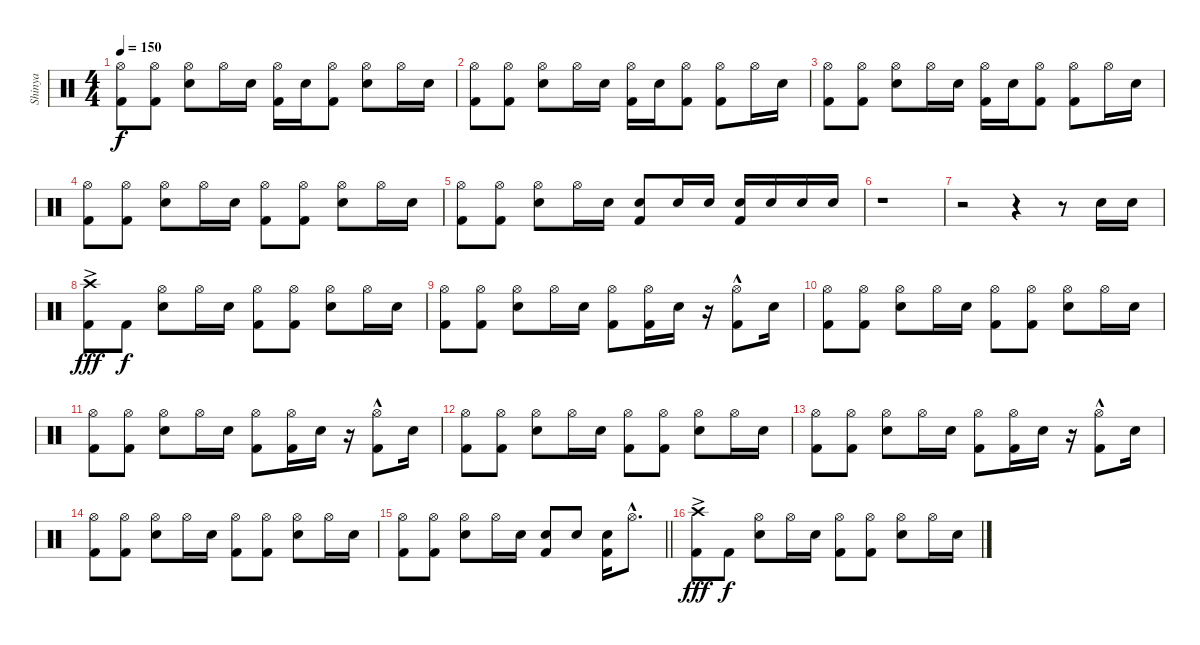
\track ("Shinya" "Shinya") {instrument percussion}
\staff {score}
\articulation defaults
\ts (4 4)
\tempo 150
\clef neutral
\ks c
("Hi-Hat (open)" "Kick (hit) 2").8{dy f} ("Hi-Hat (open)" "Kick (hit) 2").8 ("Hi-Hat (open)" "Snare (hit) 2").8 "Hi-Hat (open)".16 "Snare (hit) 2".16 ("Hi-Hat (open)" "Kick (hit) 2").16 "Snare (hit) 2".16 ("Hi-Hat (open)" "Kick (hit) 2").8 ("Hi-Hat (open)" "Snare (hit) 2").8 "Hi-Hat (open)".16 "Snare (hit) 2".16 |
("Hi-Hat (open)" "Kick (hit) 2").8 ("Hi-Hat (open)" "Kick (hit) 2").8 ("Hi-Hat (open)" "Snare (hit) 2").8 "Hi-Hat (open)".16 "Snare (hit) 2".16 ("Hi-Hat (open)" "Kick (hit) 2").16 "Snare (hit) 2".16 ("Hi-Hat (open)" "Kick (hit) 2").8 ("Hi-Hat (open)" "Kick (hit) 2").8 "Hi-Hat (open)".16 "Snare (hit) 2".16 |
("Hi-Hat (open)" "Kick (hit) 2").8 ("Hi-Hat (open)" "Kick (hit) 2").8 ("Hi-Hat (open)" "Snare (hit) 2").8 "Hi-Hat (open)".16 "Snare (hit) 2".16 ("Hi-Hat (open)" "Kick (hit) 2").16 "Snare (hit) 2".16 ("Hi-Hat (open)" "Kick (hit) 2").8 ("Hi-Hat (open)" "Kick (hit) 2").8 "Hi-Hat (open)".16 "Snare (hit) 2".16 |
("Hi-Hat (open)" "Kick (hit) 2").8 ("Hi-Hat (open)" "Kick (hit) 2").8 ("Hi-Hat (open)" "Snare (hit) 2").8 "Hi-Hat (open)".16 "Snare (hit) 2".16 ("Hi-Hat (open)" "Kick (hit) 2").8 ("Hi-Hat (open)" "Kick (hit) 2").8 ("Hi-Hat (open)" "Snare (hit) 2").8 "Hi-Hat (open)".16 "Snare (hit) 2".16 |
("Hi-Hat (open)" "Kick (hit) 2").8 ("Hi-Hat (open)" "Kick (hit) 2").8 ("Hi-Hat (open)" "Snare (hit) 2").8 "Hi-Hat (open)".16 "Snare (hit) 2".16 ("Snare (hit) 2" "Kick (hit) 2").8 "Snare (hit) 2".16 "Snare (hit) 2".16 ("Snare (hit) 2" "Kick (hit) 2").16 "Snare (hit) 2".16 "Snare (hit) 2".16 "Snare (hit) 2".16 |
r.1 |
r.2 r.4 r.8 "Snare (hit) 2".16 "Snare (hit) 2".16 |
("Crash high (hit)"{ac} "Kick (hit) 2").8{dy fff} "Kick (hit) 2".8{dy f} ("Hi-Hat (open)" "Snare (hit) 2").8 "Hi-Hat (open)".16 "Snare (hit) 2".16 ("Hi-Hat (open)" "Kick (hit) 2").8 ("Hi-Hat (open)" "Kick (hit) 2").8 ("Hi-Hat (open)" "Snare (hit) 2").8 "Hi-Hat (open)".16 "Snare (hit) 2".16 |
("Hi-Hat (open)" "Kick (hit) 2").8 ("Hi-Hat (open)" "Kick (hit) 2").8 ("Hi-Hat (open)" "Snare (hit) 2").8 "Hi-Hat (open)".16 "Snare (hit) 2".16 ("Hi-Hat (open)" "Kick (hit) 2").8 ("Hi-Hat (open)" "Kick (hit) 2").16 "Snare (hit) 2".16 r.16 ("Hi-Hat (open)" "Kick (hit) 2"{hac}).8 "Snare (hit) 2".16 |
("Hi-Hat (open)" "Kick (hit) 2").8 ("Hi-Hat (open)" "Kick (hit) 2").8 ("Hi-Hat (open)" "Snare (hit) 2").8 "Hi-Hat (open)".16 "Snare (hit) 2".16 ("Hi-Hat (open)" "Kick (hit) 2").8 ("Hi-Hat (open)" "Kick (hit) 2").8 ("Hi-Hat (open)" "Snare (hit) 2").8 "Hi-Hat (open)".16 "Snare (hit) 2".16 |
("Hi-Hat (open)" "Kick (hit) 2").8 ("Hi-Hat (open)" "Kick (hit) 2").8 ("Hi-Hat (open)" "Snare (hit) 2").8 "Hi-Hat (open)".16 "Snare (hit) 2".16 ("Hi-Hat (open)" "Kick (hit) 2").8 ("Hi-Hat (open)" "Kick (hit) 2").16 "Snare (hit) 2".16 r.16 ("Hi-Hat (open)" "Kick (hit) 2"{hac}).8 "Snare (hit) 2".16 |
("Hi-Hat (open)" "Kick (hit) 2").8 ("Hi-Hat (open)" "Kick (hit) 2").8 ("Hi-Hat (open)" "Snare (hit) 2").8 "Hi-Hat (open)".16 "Snare (hit) 2".16 ("Hi-Hat (open)" "Kick (hit) 2").8 ("Hi-Hat (open)" "Kick (hit) 2").8 ("Hi-Hat (open)" "Snare (hit) 2").8 "Hi-Hat (open)".16 "Snare (hit) 2".16 |
("Hi-Hat (open)" "Kick (hit) 2").8 ("Hi-Hat (open)" "Kick (hit) 2").8 ("Hi-Hat (open)" "Snare (hit) 2").8 "Hi-Hat (open)".16 "Snare (hit) 2".16 ("Hi-Hat (open)" "Kick (hit) 2").8 ("Hi-Hat (open)" "Kick (hit) 2").16 "Snare (hit) 2".16 r.16 ("Hi-Hat (open)" "Kick (hit) 2"{hac}).8 "Snare (hit) 2".16 |
("Hi-Hat (open)" "Kick (hit) 2").8 ("Hi-Hat (open)" "Kick (hit) 2").8 ("Hi-Hat (open)" "Snare (hit) 2").8 "Hi-Hat (open)".16 "Snare (hit) 2".16 ("Hi-Hat (open)" "Kick (hit) 2").8 ("Hi-Hat (open)" "Kick (hit) 2").8 ("Hi-Hat (open)" "Snare (hit) 2").8 "Hi-Hat (open)".16 "Snare (hit) 2".16 |
\barLineRight lightlight
("Hi-Hat (open)" "Kick (hit) 2").8 ("Hi-Hat (open)" "Kick (hit) 2").8 ("Hi-Hat (open)" "Snare (hit) 2").8 "Hi-Hat (open)".16 "Snare (hit) 2".16 ("Snare (hit) 2" "Kick (hit) 2").8 "Snare (hit) 2".8 ("Snare (hit) 2" "Kick (hit) 2").16 "Hi-Hat (open)"{hac}.8{d} |
("Crash high (hit)"{ac} "Kick (hit) 2").8{dy fff} "Kick (hit) 2".8{dy f} ("Hi-Hat (open)" "Snare (hit) 2").8 "Hi-Hat (open)".16 "Snare (hit) 2".16 ("Hi-Hat (open)" "Kick (hit) 2").8 ("Hi-Hat (open)" "Kick (hit) 2").8 ("Hi-Hat (open)" "Snare (hit) 2").8 "Hi-Hat (open)".16 "Snare (hit) 2".16
